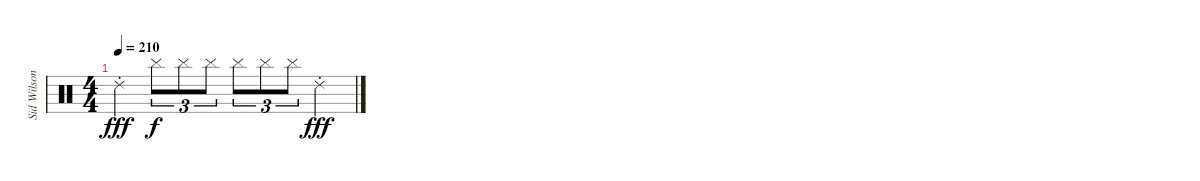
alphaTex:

\track ("Sid Wilson" "Sid Wilson") {instrument percussion}
\staff {score}
\articulation defaults
\ts (4 4)
\tempo 210
\clef neutral
\ks c "Ride (choke) 2".4{dy fff} "Cymbal (hit)".8{tu (3 2) dy f} "Cymbal (hit)".8{tu (3 2)} "Cymbal (hit)".8{tu (3 2)} "Cymbal (hit)".8{tu (3 2)} "Cymbal (hit)".8{tu (3 2)} "Cymbal (hit)".8{tu (3 2)} "Ride (choke) 2".4{dy fff}
